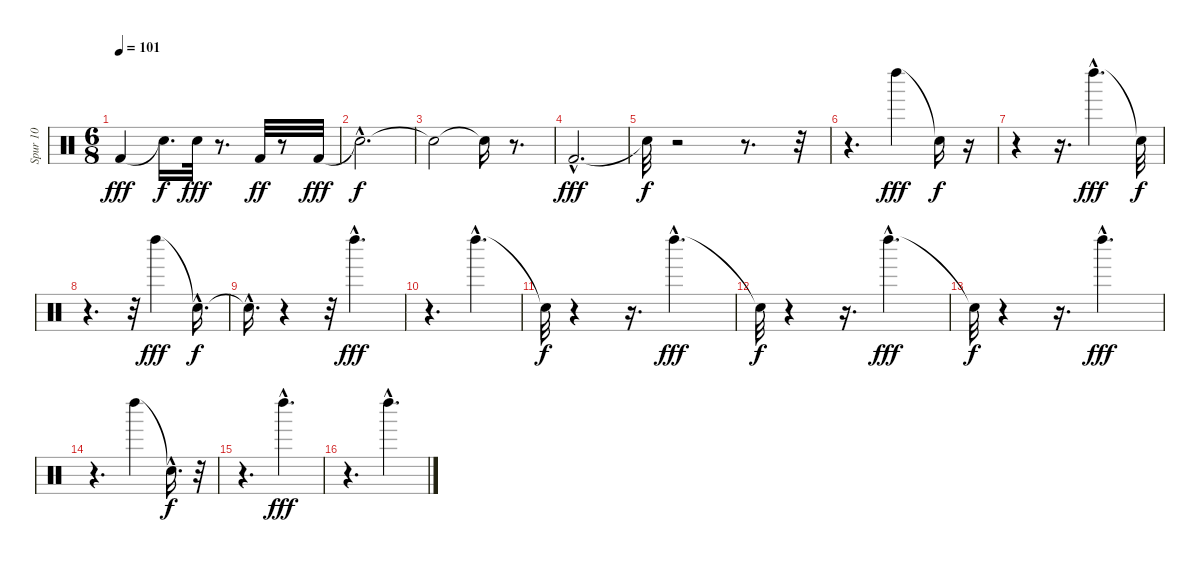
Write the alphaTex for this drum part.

\track ("Spur 10" "Spur 10") {instrument percussion}
\staff {score}
\articulation defaults
\ts (6 8)
\tempo 101
\clef neutral
\ks c "Kick (hit) 2".4{dy fff} "Snare (hit)"{t}.16{d dy f} "Electric Snare (hit)".32{dy fff}
r.8{d} "Kick (hit) 2".32{dy ff} r.8 "Kick (hit) 2".32{dy fff} |
"Snare (hit)"{hac t}.2{d dy f} |
"Snare (hit)"{t}.2 "Snare (hit)"{t}.16 r.8{d} |
"Kick (hit) 2"{hac}.2{d dy fff} |
"Snare (hit)"{t}.32{dy f} r.2 r.8{d} r.32 |
r.4{d} "Left Maraca (hit)".4{dy fff} "Snare (hit)"{t}.16{dy f} r.16 |
r.4 r.16{d} "Left Maraca (hit)"{hac}.4{d dy fff} "Snare (hit)"{t}.32{dy f} |
r.4{d} r.32 "Left Maraca (hit)".4{dy fff} "Snare (hit)"{hac t}.16{d dy f} |
"Snare (hit)"{hac t}.16{d} r.4 r.32 "Left Maraca (hit)"{hac}.4{d dy fff} |
r.4{d} "Left Maraca (hit)"{hac}.4{d} |
"Snare (hit)"{t}.32{dy f} r.4 r.16{d} "Left Maraca (hit)"{hac}.4{d dy fff} |
"Snare (hit)"{t}.32{dy f} r.4 r.16{d} "Left Maraca (hit)"{hac}.4{d dy fff} |
"Snare (hit)"{t}.32{dy f} r.4 r.16{d} "Left Maraca (hit)"{hac}.4{d dy fff} |
r.4{d} "Left Maraca (hit)".4 "Snare (hit)"{hac t}.16{d dy f} r.32 |
r.4{d} "Left Maraca (hit)"{hac}.4{d dy fff} |
r.4{d} "Left Maraca (hit)"{hac}.4{d}
